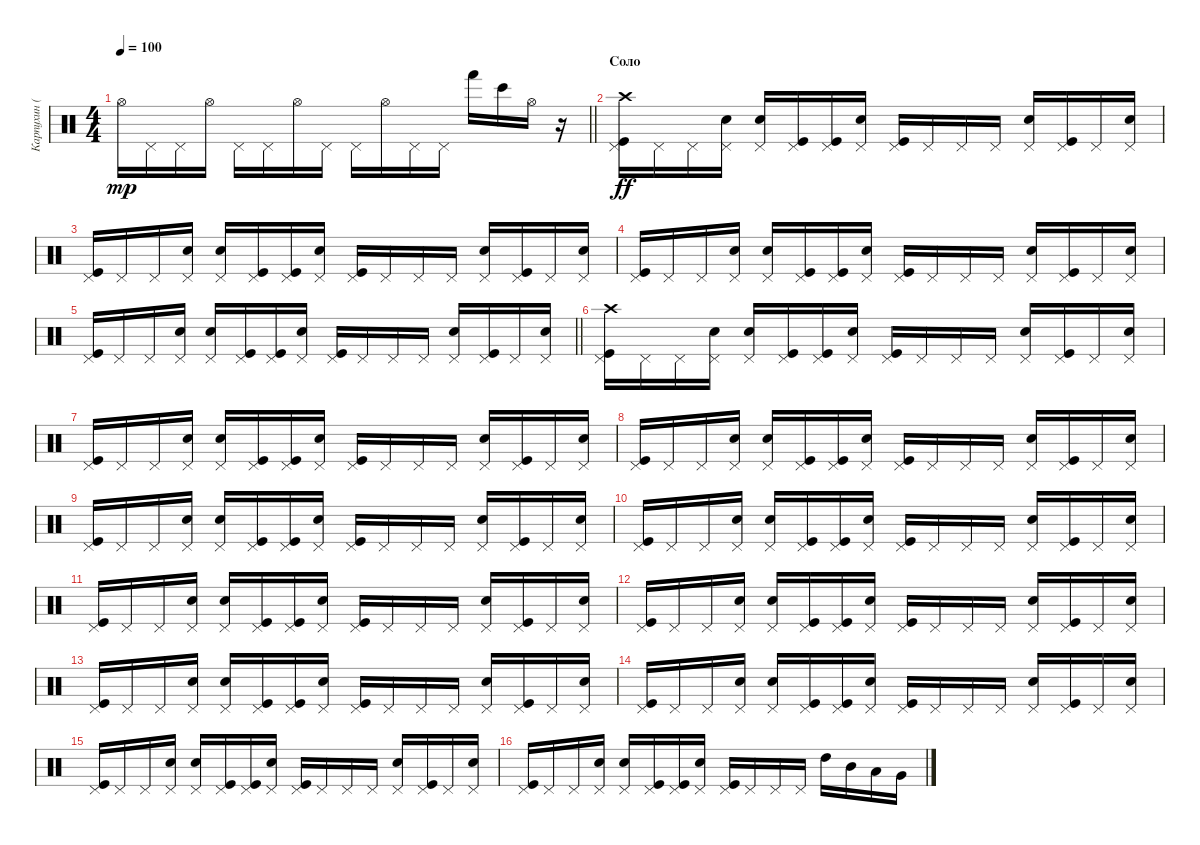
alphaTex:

\track ("Карпухин (ударные)" "Карпухин (") {instrument percussion}
\staff {score}
\articulation defaults
\ts (4 4)
\tempo 100
\clef neutral
\barLineRight lightlight
\ks c "Hi-Hat (open)".16{dy mp} "Pedal Hi-Hat (hit)".16 "Pedal Hi-Hat (hit)".16 "Hi-Hat (open)".16 "Pedal Hi-Hat (hit)".16 "Pedal Hi-Hat (hit)".16 "Hi-Hat (open)".16 "Pedal Hi-Hat (hit)".16 "Pedal Hi-Hat (hit)".16 "Hi-Hat (open)".16 "Pedal Hi-Hat (hit)".16 "Pedal Hi-Hat (hit)".16 "Hand (hit)".16 "Bongo High (hit)".16 "Hi-Hat (open)".16
r.16 |
\section ("" "Соло")
("Pedal Hi-Hat (hit)" "Kick (hit)" "Crash high (hit)").16{dy ff} "Pedal Hi-Hat (hit)".16 "Pedal Hi-Hat (hit)".16 ("Pedal Hi-Hat (hit)" "Snare (hit) 2").16 ("Pedal Hi-Hat (hit)" "Snare (hit) 2").16 ("Pedal Hi-Hat (hit)" "Kick (hit)").16 ("Pedal Hi-Hat (hit)" "Kick (hit)").16 ("Pedal Hi-Hat (hit)" "Snare (hit) 2").16 ("Pedal Hi-Hat (hit)" "Kick (hit)").16 "Pedal Hi-Hat (hit)".16 "Pedal Hi-Hat (hit)".16 "Pedal Hi-Hat (hit)".16 ("Pedal Hi-Hat (hit)" "Snare (hit) 2").16 ("Pedal Hi-Hat (hit)" "Kick (hit)").16 "Pedal Hi-Hat (hit)".16 ("Pedal Hi-Hat (hit)" "Snare (hit) 2").16 |
("Pedal Hi-Hat (hit)" "Kick (hit)").16 "Pedal Hi-Hat (hit)".16 "Pedal Hi-Hat (hit)".16 ("Pedal Hi-Hat (hit)" "Snare (hit) 2").16 ("Pedal Hi-Hat (hit)" "Snare (hit) 2").16 ("Pedal Hi-Hat (hit)" "Kick (hit)").16 ("Pedal Hi-Hat (hit)" "Kick (hit)").16 ("Pedal Hi-Hat (hit)" "Snare (hit) 2").16 ("Pedal Hi-Hat (hit)" "Kick (hit)").16 "Pedal Hi-Hat (hit)".16 "Pedal Hi-Hat (hit)".16 "Pedal Hi-Hat (hit)".16 ("Pedal Hi-Hat (hit)" "Snare (hit) 2").16 ("Pedal Hi-Hat (hit)" "Kick (hit)").16 "Pedal Hi-Hat (hit)".16 ("Pedal Hi-Hat (hit)" "Snare (hit) 2").16 |
("Pedal Hi-Hat (hit)" "Kick (hit)").16 "Pedal Hi-Hat (hit)".16 "Pedal Hi-Hat (hit)".16 ("Pedal Hi-Hat (hit)" "Snare (hit) 2").16 ("Pedal Hi-Hat (hit)" "Snare (hit) 2").16 ("Pedal Hi-Hat (hit)" "Kick (hit)").16 ("Pedal Hi-Hat (hit)" "Kick (hit)").16 ("Pedal Hi-Hat (hit)" "Snare (hit) 2").16 ("Pedal Hi-Hat (hit)" "Kick (hit)").16 "Pedal Hi-Hat (hit)".16 "Pedal Hi-Hat (hit)".16 "Pedal Hi-Hat (hit)".16 ("Pedal Hi-Hat (hit)" "Snare (hit) 2").16 ("Pedal Hi-Hat (hit)" "Kick (hit)").16 "Pedal Hi-Hat (hit)".16 ("Pedal Hi-Hat (hit)" "Snare (hit) 2").16 |
\barLineRight lightlight
("Pedal Hi-Hat (hit)" "Kick (hit)").16 "Pedal Hi-Hat (hit)".16 "Pedal Hi-Hat (hit)".16 ("Pedal Hi-Hat (hit)" "Snare (hit) 2").16 ("Pedal Hi-Hat (hit)" "Snare (hit) 2").16 ("Pedal Hi-Hat (hit)" "Kick (hit)").16 ("Pedal Hi-Hat (hit)" "Kick (hit)").16 ("Pedal Hi-Hat (hit)" "Snare (hit) 2").16 ("Pedal Hi-Hat (hit)" "Kick (hit)").16 "Pedal Hi-Hat (hit)".16 "Pedal Hi-Hat (hit)".16 "Pedal Hi-Hat (hit)".16 ("Pedal Hi-Hat (hit)" "Snare (hit) 2").16 ("Pedal Hi-Hat (hit)" "Kick (hit)").16 "Pedal Hi-Hat (hit)".16 ("Pedal Hi-Hat (hit)" "Snare (hit) 2").16 |
("Pedal Hi-Hat (hit)" "Kick (hit)" "Crash high (hit)").16 "Pedal Hi-Hat (hit)".16 "Pedal Hi-Hat (hit)".16 ("Pedal Hi-Hat (hit)" "Snare (hit) 2").16 ("Pedal Hi-Hat (hit)" "Snare (hit) 2").16 ("Pedal Hi-Hat (hit)" "Kick (hit)").16 ("Pedal Hi-Hat (hit)" "Kick (hit)").16 ("Pedal Hi-Hat (hit)" "Snare (hit) 2").16 ("Pedal Hi-Hat (hit)" "Kick (hit)").16 "Pedal Hi-Hat (hit)".16 "Pedal Hi-Hat (hit)".16 "Pedal Hi-Hat (hit)".16 ("Pedal Hi-Hat (hit)" "Snare (hit) 2").16 ("Pedal Hi-Hat (hit)" "Kick (hit)").16 "Pedal Hi-Hat (hit)".16 ("Pedal Hi-Hat (hit)" "Snare (hit) 2").16 |
("Pedal Hi-Hat (hit)" "Kick (hit)").16 "Pedal Hi-Hat (hit)".16 "Pedal Hi-Hat (hit)".16 ("Pedal Hi-Hat (hit)" "Snare (hit) 2").16 ("Pedal Hi-Hat (hit)" "Snare (hit) 2").16 ("Pedal Hi-Hat (hit)" "Kick (hit)").16 ("Pedal Hi-Hat (hit)" "Kick (hit)").16 ("Pedal Hi-Hat (hit)" "Snare (hit) 2").16 ("Pedal Hi-Hat (hit)" "Kick (hit)").16 "Pedal Hi-Hat (hit)".16 "Pedal Hi-Hat (hit)".16 "Pedal Hi-Hat (hit)".16 ("Pedal Hi-Hat (hit)" "Snare (hit) 2").16 ("Pedal Hi-Hat (hit)" "Kick (hit)").16 "Pedal Hi-Hat (hit)".16 ("Pedal Hi-Hat (hit)" "Snare (hit) 2").16 |
("Pedal Hi-Hat (hit)" "Kick (hit)").16 "Pedal Hi-Hat (hit)".16 "Pedal Hi-Hat (hit)".16 ("Pedal Hi-Hat (hit)" "Snare (hit) 2").16 ("Pedal Hi-Hat (hit)" "Snare (hit) 2").16 ("Pedal Hi-Hat (hit)" "Kick (hit)").16 ("Pedal Hi-Hat (hit)" "Kick (hit)").16 ("Pedal Hi-Hat (hit)" "Snare (hit) 2").16 ("Pedal Hi-Hat (hit)" "Kick (hit)").16 "Pedal Hi-Hat (hit)".16 "Pedal Hi-Hat (hit)".16 "Pedal Hi-Hat (hit)".16 ("Pedal Hi-Hat (hit)" "Snare (hit) 2").16 ("Pedal Hi-Hat (hit)" "Kick (hit)").16 "Pedal Hi-Hat (hit)".16 ("Pedal Hi-Hat (hit)" "Snare (hit) 2").16 |
("Pedal Hi-Hat (hit)" "Kick (hit)").16 "Pedal Hi-Hat (hit)".16 "Pedal Hi-Hat (hit)".16 ("Pedal Hi-Hat (hit)" "Snare (hit) 2").16 ("Pedal Hi-Hat (hit)" "Snare (hit) 2").16 ("Pedal Hi-Hat (hit)" "Kick (hit)").16 ("Pedal Hi-Hat (hit)" "Kick (hit)").16 ("Pedal Hi-Hat (hit)" "Snare (hit) 2").16 ("Pedal Hi-Hat (hit)" "Kick (hit)").16 "Pedal Hi-Hat (hit)".16 "Pedal Hi-Hat (hit)".16 "Pedal Hi-Hat (hit)".16 ("Pedal Hi-Hat (hit)" "Snare (hit) 2").16 ("Pedal Hi-Hat (hit)" "Kick (hit)").16 "Pedal Hi-Hat (hit)".16 ("Pedal Hi-Hat (hit)" "Snare (hit) 2").16 |
("Pedal Hi-Hat (hit)" "Kick (hit)").16 "Pedal Hi-Hat (hit)".16 "Pedal Hi-Hat (hit)".16 ("Pedal Hi-Hat (hit)" "Snare (hit) 2").16 ("Pedal Hi-Hat (hit)" "Snare (hit) 2").16 ("Pedal Hi-Hat (hit)" "Kick (hit)").16 ("Pedal Hi-Hat (hit)" "Kick (hit)").16 ("Pedal Hi-Hat (hit)" "Snare (hit) 2").16 ("Pedal Hi-Hat (hit)" "Kick (hit)").16 "Pedal Hi-Hat (hit)".16 "Pedal Hi-Hat (hit)".16 "Pedal Hi-Hat (hit)".16 ("Pedal Hi-Hat (hit)" "Snare (hit) 2").16 ("Pedal Hi-Hat (hit)" "Kick (hit)").16 "Pedal Hi-Hat (hit)".16 ("Pedal Hi-Hat (hit)" "Snare (hit) 2").16 |
("Pedal Hi-Hat (hit)" "Kick (hit)").16 "Pedal Hi-Hat (hit)".16 "Pedal Hi-Hat (hit)".16 ("Pedal Hi-Hat (hit)" "Snare (hit) 2").16 ("Pedal Hi-Hat (hit)" "Snare (hit) 2").16 ("Pedal Hi-Hat (hit)" "Kick (hit)").16 ("Pedal Hi-Hat (hit)" "Kick (hit)").16 ("Pedal Hi-Hat (hit)" "Snare (hit) 2").16 ("Pedal Hi-Hat (hit)" "Kick (hit)").16 "Pedal Hi-Hat (hit)".16 "Pedal Hi-Hat (hit)".16 "Pedal Hi-Hat (hit)".16 ("Pedal Hi-Hat (hit)" "Snare (hit) 2").16 ("Pedal Hi-Hat (hit)" "Kick (hit)").16 "Pedal Hi-Hat (hit)".16 ("Pedal Hi-Hat (hit)" "Snare (hit) 2").16 |
("Pedal Hi-Hat (hit)" "Kick (hit)").16 "Pedal Hi-Hat (hit)".16 "Pedal Hi-Hat (hit)".16 ("Pedal Hi-Hat (hit)" "Snare (hit) 2").16 ("Pedal Hi-Hat (hit)" "Snare (hit) 2").16 ("Pedal Hi-Hat (hit)" "Kick (hit)").16 ("Pedal Hi-Hat (hit)" "Kick (hit)").16 ("Pedal Hi-Hat (hit)" "Snare (hit) 2").16 ("Pedal Hi-Hat (hit)" "Kick (hit)").16 "Pedal Hi-Hat (hit)".16 "Pedal Hi-Hat (hit)".16 "Pedal Hi-Hat (hit)".16 ("Pedal Hi-Hat (hit)" "Snare (hit) 2").16 ("Pedal Hi-Hat (hit)" "Kick (hit)").16 "Pedal Hi-Hat (hit)".16 ("Pedal Hi-Hat (hit)" "Snare (hit) 2").16 |
("Pedal Hi-Hat (hit)" "Kick (hit)").16 "Pedal Hi-Hat (hit)".16 "Pedal Hi-Hat (hit)".16 ("Pedal Hi-Hat (hit)" "Snare (hit) 2").16 ("Pedal Hi-Hat (hit)" "Snare (hit) 2").16 ("Pedal Hi-Hat (hit)" "Kick (hit)").16 ("Pedal Hi-Hat (hit)" "Kick (hit)").16 ("Pedal Hi-Hat (hit)" "Snare (hit) 2").16 ("Pedal Hi-Hat (hit)" "Kick (hit)").16 "Pedal Hi-Hat (hit)".16 "Pedal Hi-Hat (hit)".16 "Pedal Hi-Hat (hit)".16 ("Pedal Hi-Hat (hit)" "Snare (hit) 2").16 ("Pedal Hi-Hat (hit)" "Kick (hit)").16 "Pedal Hi-Hat (hit)".16 ("Pedal Hi-Hat (hit)" "Snare (hit) 2").16 |
("Pedal Hi-Hat (hit)" "Kick (hit)").16 "Pedal Hi-Hat (hit)".16 "Pedal Hi-Hat (hit)".16 ("Pedal Hi-Hat (hit)" "Snare (hit) 2").16 ("Pedal Hi-Hat (hit)" "Snare (hit) 2").16 ("Pedal Hi-Hat (hit)" "Kick (hit)").16 ("Pedal Hi-Hat (hit)" "Kick (hit)").16 ("Pedal Hi-Hat (hit)" "Snare (hit) 2").16 ("Pedal Hi-Hat (hit)" "Kick (hit)").16 "Pedal Hi-Hat (hit)".16 "Pedal Hi-Hat (hit)".16 "Pedal Hi-Hat (hit)".16 ("Pedal Hi-Hat (hit)" "Snare (hit) 2").16 ("Pedal Hi-Hat (hit)" "Kick (hit)").16 "Pedal Hi-Hat (hit)".16 ("Pedal Hi-Hat (hit)" "Snare (hit) 2").16 |
("Pedal Hi-Hat (hit)" "Kick (hit)").16 "Pedal Hi-Hat (hit)".16 "Pedal Hi-Hat (hit)".16 ("Pedal Hi-Hat (hit)" "Snare (hit) 2").16 ("Pedal Hi-Hat (hit)" "Snare (hit) 2").16 ("Pedal Hi-Hat (hit)" "Kick (hit)").16 ("Pedal Hi-Hat (hit)" "Kick (hit)").16 ("Pedal Hi-Hat (hit)" "Snare (hit) 2").16 ("Pedal Hi-Hat (hit)" "Kick (hit)").16 "Pedal Hi-Hat (hit)".16 "Pedal Hi-Hat (hit)".16 "Pedal Hi-Hat (hit)".16 ("Pedal Hi-Hat (hit)" "Snare (hit) 2").16 ("Pedal Hi-Hat (hit)" "Kick (hit)").16 "Pedal Hi-Hat (hit)".16 ("Pedal Hi-Hat (hit)" "Snare (hit) 2").16 |
("Pedal Hi-Hat (hit)" "Kick (hit)").16 "Pedal Hi-Hat (hit)".16 "Pedal Hi-Hat (hit)".16 ("Pedal Hi-Hat (hit)" "Snare (hit) 2").16 ("Pedal Hi-Hat (hit)" "Snare (hit) 2").16 ("Pedal Hi-Hat (hit)" "Kick (hit)").16 ("Pedal Hi-Hat (hit)" "Kick (hit)").16 ("Pedal Hi-Hat (hit)" "Snare (hit) 2").16 ("Pedal Hi-Hat (hit)" "Kick (hit)").16 "Pedal Hi-Hat (hit)".16 "Pedal Hi-Hat (hit)".16 "Pedal Hi-Hat (hit)".16 "High Tom (hit)".16 "Mid Tom (hit)".16 "Low Tom (hit)".16 "Very Low Tom (hit)".16
